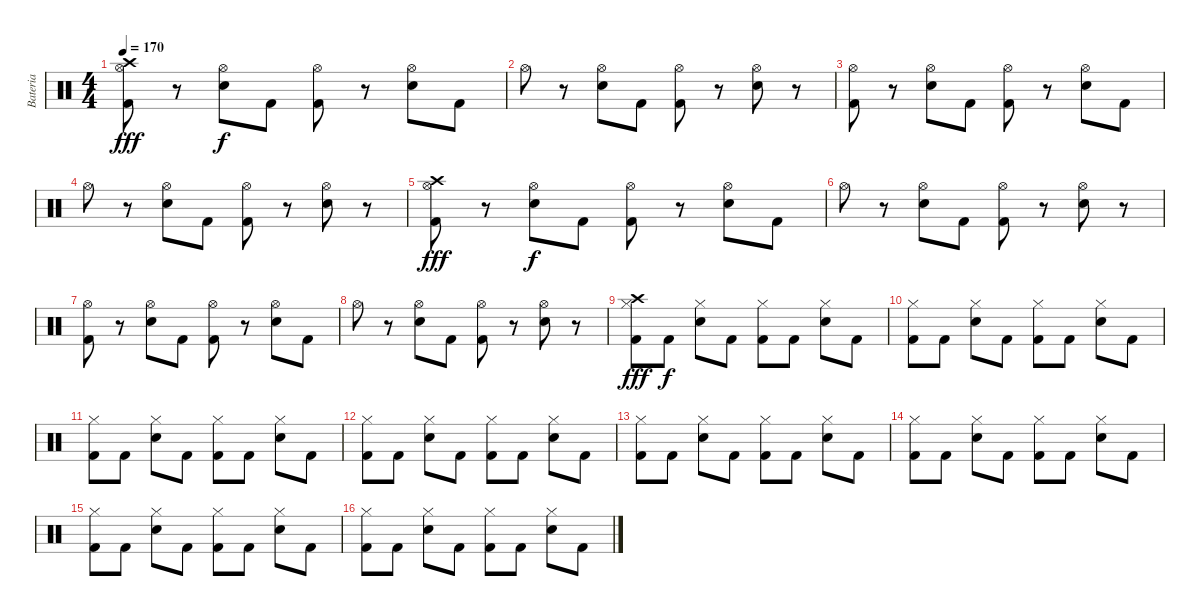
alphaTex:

\track ("Bateria" "Bateria") {instrument percussion}
\staff {score}
\articulation defaults
\ts (4 4)
\tempo 170
\clef neutral
\ks c
("Kick (hit) 2" "Hi-Hat (open)" "Crash high (hit)").8{dy fff} r.8 ("Snare (hit) 2" "Hi-Hat (open)").8{dy f} "Kick (hit) 2".8 ("Kick (hit) 2" "Hi-Hat (open)").8 r.8 ("Snare (hit) 2" "Hi-Hat (open)").8 "Kick (hit) 2".8 |
"Hi-Hat (open)".8 r.8 ("Snare (hit) 2" "Hi-Hat (open)").8 "Kick (hit) 2".8 ("Kick (hit) 2" "Hi-Hat (open)").8 r.8 ("Snare (hit) 2" "Hi-Hat (open)").8 r.8 |
("Kick (hit) 2" "Hi-Hat (open)").8 r.8 ("Snare (hit) 2" "Hi-Hat (open)").8 "Kick (hit) 2".8 ("Kick (hit) 2" "Hi-Hat (open)").8 r.8 ("Snare (hit) 2" "Hi-Hat (open)").8 "Kick (hit) 2".8 |
"Hi-Hat (open)".8 r.8 ("Snare (hit) 2" "Hi-Hat (open)").8 "Kick (hit) 2".8 ("Kick (hit) 2" "Hi-Hat (open)").8 r.8 ("Snare (hit) 2" "Hi-Hat (open)").8 r.8 |
("Kick (hit) 2" "Hi-Hat (open)" "Crash high (hit)").8{dy fff} r.8 ("Snare (hit) 2" "Hi-Hat (open)").8{dy f} "Kick (hit) 2".8 ("Kick (hit) 2" "Hi-Hat (open)").8 r.8 ("Snare (hit) 2" "Hi-Hat (open)").8 "Kick (hit) 2".8 |
"Hi-Hat (open)".8 r.8 ("Snare (hit) 2" "Hi-Hat (open)").8 "Kick (hit) 2".8 ("Kick (hit) 2" "Hi-Hat (open)").8 r.8 ("Snare (hit) 2" "Hi-Hat (open)").8 r.8 |
("Kick (hit) 2" "Hi-Hat (open)").8 r.8 ("Snare (hit) 2" "Hi-Hat (open)").8 "Kick (hit) 2".8 ("Kick (hit) 2" "Hi-Hat (open)").8 r.8 ("Snare (hit) 2" "Hi-Hat (open)").8 "Kick (hit) 2".8 |
"Hi-Hat (open)".8 r.8 ("Snare (hit) 2" "Hi-Hat (open)").8 "Kick (hit) 2".8 ("Kick (hit) 2" "Hi-Hat (open)").8 r.8 ("Snare (hit) 2" "Hi-Hat (open)").8 r.8 |
("Crash high (hit)" "Kick (hit) 2" "Hi-Hat (closed)").8{dy fff} "Kick (hit) 2".8{dy f} ("Snare (hit) 2" "Hi-Hat (closed)").8 "Kick (hit) 2".8 ("Kick (hit) 2" "Hi-Hat (closed)").8 "Kick (hit) 2".8 ("Snare (hit) 2" "Hi-Hat (closed)").8 "Kick (hit) 2".8 |
("Kick (hit) 2" "Hi-Hat (closed)").8 "Kick (hit) 2".8 ("Snare (hit) 2" "Hi-Hat (closed)").8 "Kick (hit) 2".8 ("Kick (hit) 2" "Hi-Hat (closed)").8 "Kick (hit) 2".8 ("Snare (hit) 2" "Hi-Hat (closed)").8 "Kick (hit) 2".8 |
("Kick (hit) 2" "Hi-Hat (closed)").8 "Kick (hit) 2".8 ("Snare (hit) 2" "Hi-Hat (closed)").8 "Kick (hit) 2".8 ("Kick (hit) 2" "Hi-Hat (closed)").8 "Kick (hit) 2".8 ("Snare (hit) 2" "Hi-Hat (closed)").8 "Kick (hit) 2".8 |
("Kick (hit) 2" "Hi-Hat (closed)").8 "Kick (hit) 2".8 ("Snare (hit) 2" "Hi-Hat (closed)").8 "Kick (hit) 2".8 ("Kick (hit) 2" "Hi-Hat (closed)").8 "Kick (hit) 2".8 ("Snare (hit) 2" "Hi-Hat (closed)").8 "Kick (hit) 2".8 |
("Kick (hit) 2" "Hi-Hat (closed)").8 "Kick (hit) 2".8 ("Snare (hit) 2" "Hi-Hat (closed)").8 "Kick (hit) 2".8 ("Kick (hit) 2" "Hi-Hat (closed)").8 "Kick (hit) 2".8 ("Snare (hit) 2" "Hi-Hat (closed)").8 "Kick (hit) 2".8 |
("Kick (hit) 2" "Hi-Hat (closed)").8 "Kick (hit) 2".8 ("Snare (hit) 2" "Hi-Hat (closed)").8 "Kick (hit) 2".8 ("Kick (hit) 2" "Hi-Hat (closed)").8 "Kick (hit) 2".8 ("Snare (hit) 2" "Hi-Hat (closed)").8 "Kick (hit) 2".8 |
("Kick (hit) 2" "Hi-Hat (closed)").8 "Kick (hit) 2".8 ("Snare (hit) 2" "Hi-Hat (closed)").8 "Kick (hit) 2".8 ("Kick (hit) 2" "Hi-Hat (closed)").8 "Kick (hit) 2".8 ("Snare (hit) 2" "Hi-Hat (closed)").8 "Kick (hit) 2".8 |
("Kick (hit) 2" "Hi-Hat (closed)").8 "Kick (hit) 2".8 ("Snare (hit) 2" "Hi-Hat (closed)").8 "Kick (hit) 2".8 ("Kick (hit) 2" "Hi-Hat (closed)").8 "Kick (hit) 2".8 ("Snare (hit) 2" "Hi-Hat (closed)").8 "Kick (hit) 2".8
